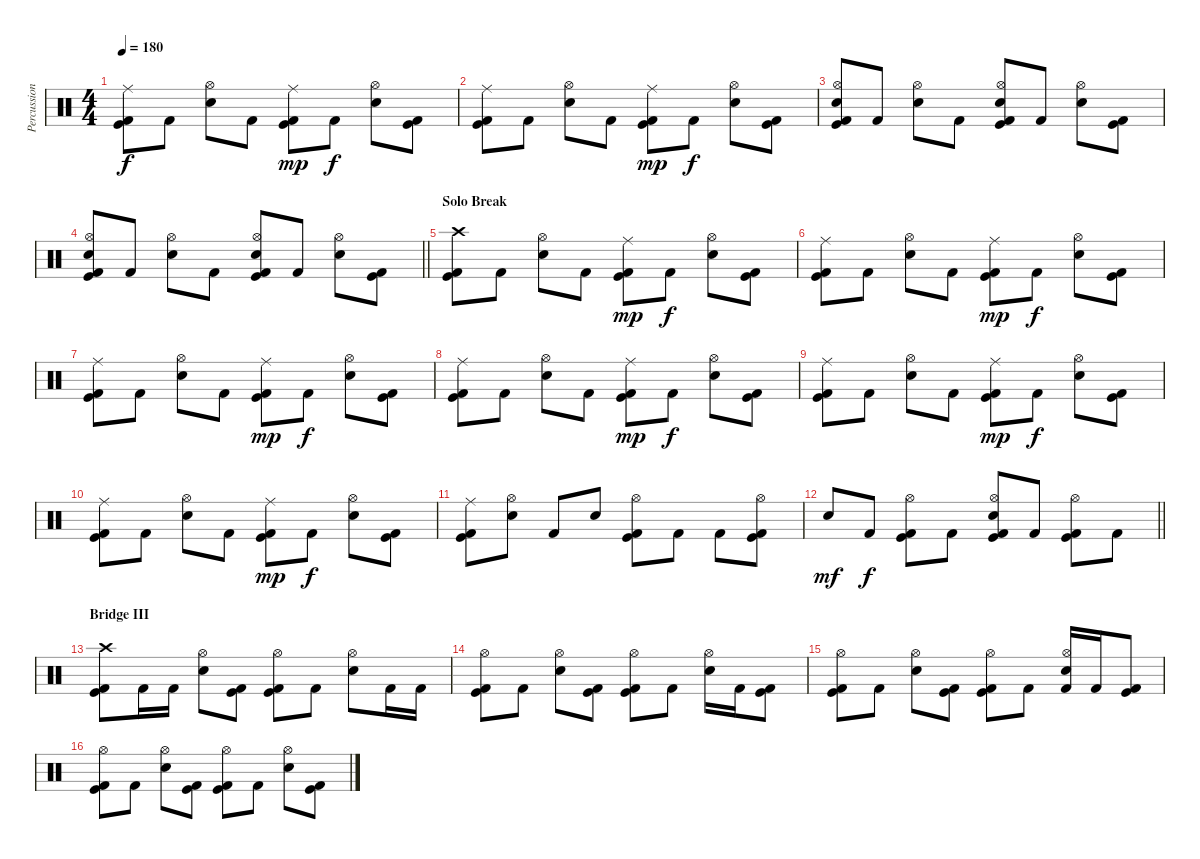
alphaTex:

\track ("Percussion" "Percussion") {instrument percussion}
\staff {score}
\articulation defaults
\ts (4 4)
\tempo 180
\clef neutral
\ks c
("Ride (middle)" "Kick (hit)" "Kick (hit) 2").8{dy f} "Kick (hit) 2".8 ("Hi-Hat (open)" "Snare (hit) 2").8 "Kick (hit) 2".8 ("Ride (middle)" "Kick (hit)" "Kick (hit) 2").8{dy mp} "Kick (hit) 2".8{dy f} ("Hi-Hat (open)" "Snare (hit) 2").8 ("Kick (hit)" "Kick (hit) 2").8 |
("Ride (middle)" "Kick (hit)" "Kick (hit) 2").8 "Kick (hit) 2".8 ("Hi-Hat (open)" "Snare (hit) 2").8 "Kick (hit) 2".8 ("Ride (middle)" "Kick (hit)" "Kick (hit) 2").8{dy mp} "Kick (hit) 2".8{dy f} ("Hi-Hat (open)" "Snare (hit) 2").8 ("Kick (hit)" "Kick (hit) 2").8 |
("Hi-Hat (open)" "Electric Snare (hit)" "Kick (hit)" "Kick (hit) 2").8 "Kick (hit) 2".8 ("Hi-Hat (open)" "Snare (hit) 2").8 "Kick (hit) 2".8 ("Hi-Hat (open)" "Electric Snare (hit)" "Kick (hit)" "Kick (hit) 2").8 "Kick (hit) 2".8 ("Hi-Hat (open)" "Snare (hit) 2").8 ("Kick (hit)" "Kick (hit) 2").8 |
\barLineRight lightlight
("Hi-Hat (open)" "Electric Snare (hit)" "Kick (hit)" "Kick (hit) 2").8 "Kick (hit) 2".8 ("Hi-Hat (open)" "Snare (hit) 2").8 "Kick (hit) 2".8 ("Hi-Hat (open)" "Electric Snare (hit)" "Kick (hit)" "Kick (hit) 2").8 "Kick (hit) 2".8 ("Hi-Hat (open)" "Snare (hit) 2").8 ("Kick (hit)" "Kick (hit) 2").8 |
\section ("" "Solo Break")
("Crash high (hit)" "Kick (hit)" "Kick (hit) 2").8 "Kick (hit) 2".8 ("Hi-Hat (open)" "Snare (hit) 2").8 "Kick (hit) 2".8 ("Ride (middle)" "Kick (hit)" "Kick (hit) 2").8{dy mp} "Kick (hit) 2".8{dy f} ("Hi-Hat (open)" "Snare (hit) 2").8 ("Kick (hit)" "Kick (hit) 2").8 |
("Ride (middle)" "Kick (hit)" "Kick (hit) 2").8 "Kick (hit) 2".8 ("Hi-Hat (open)" "Snare (hit) 2").8 "Kick (hit) 2".8 ("Ride (middle)" "Kick (hit)" "Kick (hit) 2").8{dy mp} "Kick (hit) 2".8{dy f} ("Hi-Hat (open)" "Snare (hit) 2").8 ("Kick (hit)" "Kick (hit) 2").8 |
("Ride (middle)" "Kick (hit)" "Kick (hit) 2").8 "Kick (hit) 2".8 ("Hi-Hat (open)" "Snare (hit) 2").8 "Kick (hit) 2".8 ("Ride (middle)" "Kick (hit)" "Kick (hit) 2").8{dy mp} "Kick (hit) 2".8{dy f} ("Hi-Hat (open)" "Snare (hit) 2").8 ("Kick (hit)" "Kick (hit) 2").8 |
("Ride (middle)" "Kick (hit)" "Kick (hit) 2").8 "Kick (hit) 2".8 ("Hi-Hat (open)" "Snare (hit) 2").8 "Kick (hit) 2".8 ("Ride (middle)" "Kick (hit)" "Kick (hit) 2").8{dy mp} "Kick (hit) 2".8{dy f} ("Hi-Hat (open)" "Snare (hit) 2").8 ("Kick (hit)" "Kick (hit) 2").8 |
("Ride (middle)" "Kick (hit)" "Kick (hit) 2").8 "Kick (hit) 2".8 ("Hi-Hat (open)" "Snare (hit) 2").8 "Kick (hit) 2".8 ("Ride (middle)" "Kick (hit)" "Kick (hit) 2").8{dy mp} "Kick (hit) 2".8{dy f} ("Hi-Hat (open)" "Snare (hit) 2").8 ("Kick (hit)" "Kick (hit) 2").8 |
("Ride (middle)" "Kick (hit)" "Kick (hit) 2").8 "Kick (hit) 2".8 ("Hi-Hat (open)" "Snare (hit) 2").8 "Kick (hit) 2".8 ("Ride (middle)" "Kick (hit)" "Kick (hit) 2").8{dy mp} "Kick (hit) 2".8{dy f} ("Hi-Hat (open)" "Snare (hit) 2").8 ("Kick (hit)" "Kick (hit) 2").8 |
("Ride (middle)" "Kick (hit)" "Kick (hit) 2").8 ("Hi-Hat (open)" "Snare (hit) 2").8 "Kick (hit) 2".8 "Snare (hit) 2".8 ("Hi-Hat (open)" "Kick (hit)" "Kick (hit) 2").8 "Kick (hit) 2".8 "Kick (hit) 2".8 ("Hi-Hat (open)" "Kick (hit)" "Kick (hit) 2").8 |
\barLineRight lightlight "Snare (hit) 2".8{dy mf} "Kick (hit) 2".8{dy f}
("Hi-Hat (open)" "Kick (hit)" "Kick (hit) 2").8 "Kick (hit) 2".8 ("Hi-Hat (open)" "Snare (hit) 2" "Kick (hit)" "Kick (hit) 2").8 "Kick (hit) 2".8 ("Hi-Hat (open)" "Kick (hit)" "Kick (hit) 2").8 "Kick (hit) 2".8 |
\section ("" "Bridge III")
("Crash high (hit)" "Kick (hit)" "Kick (hit) 2").8 "Kick (hit) 2".16 "Kick (hit) 2".16 ("Hi-Hat (open)" "Snare (hit) 2").8 ("Kick (hit)" "Kick (hit) 2").8 ("Hi-Hat (open)" "Kick (hit)" "Kick (hit) 2").8 "Kick (hit) 2".8 ("Hi-Hat (open)" "Snare (hit) 2").8 "Kick (hit) 2".16 "Kick (hit) 2".16 |
("Hi-Hat (open)" "Kick (hit)" "Kick (hit) 2").8 "Kick (hit) 2".8 ("Hi-Hat (open)" "Snare (hit) 2").8 ("Kick (hit)" "Kick (hit) 2").8 ("Hi-Hat (open)" "Kick (hit)" "Kick (hit) 2").8 "Kick (hit) 2".8 ("Hi-Hat (open)" "Snare (hit) 2").16 "Kick (hit) 2".16 ("Kick (hit)" "Kick (hit) 2").8 |
("Hi-Hat (open)" "Kick (hit)" "Kick (hit) 2").8 "Kick (hit) 2".8 ("Hi-Hat (open)" "Snare (hit) 2").8 ("Kick (hit)" "Kick (hit) 2").8 ("Hi-Hat (open)" "Kick (hit)" "Kick (hit) 2").8 "Kick (hit) 2".8 ("Hi-Hat (open)" "Snare (hit) 2" "Kick (hit) 2").16 "Kick (hit) 2".16 ("Kick (hit)" "Kick (hit) 2").8 |
("Hi-Hat (open)" "Kick (hit)" "Kick (hit) 2").8 "Kick (hit) 2".8 ("Hi-Hat (open)" "Snare (hit) 2").8 ("Kick (hit)" "Kick (hit) 2").8 ("Hi-Hat (open)" "Kick (hit)" "Kick (hit) 2").8 "Kick (hit) 2".8 ("Hi-Hat (open)" "Snare (hit) 2").8 ("Kick (hit)" "Kick (hit) 2").8
